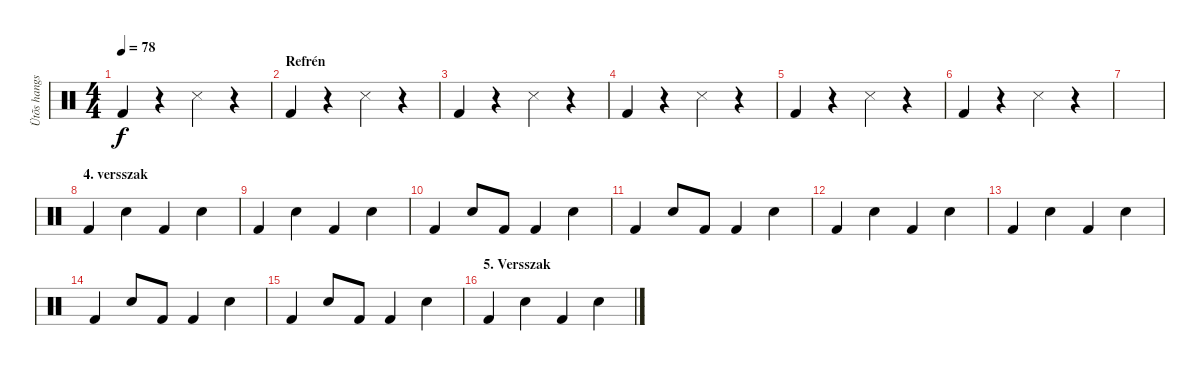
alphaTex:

\track ("Ütõs hangszer" "Ütõs hangs") {instrument percussion}
\staff {score}
\articulation defaults
\ts (4 4)
\tempo 78
\clef neutral
\ks c "Kick (hit) 2".4{dy f}
r.4 "Snare (side stick) 3".4 r.4 |
\section ("" "Refrén")
"Kick (hit) 2".4 r.4 "Snare (side stick) 3".4 r.4 |
"Kick (hit) 2".4 r.4 "Snare (side stick) 3".4 r.4 |
"Kick (hit) 2".4 r.4 "Snare (side stick) 3".4 r.4 |
"Kick (hit) 2".4 r.4 "Snare (side stick) 3".4 r.4 |
"Kick (hit) 2".4 r.4 "Snare (side stick) 3".4 r.4 |
|
\section ("" "4. versszak")
"Kick (hit) 2".4 "Snare (hit) 2".4 "Kick (hit) 2".4 "Snare (hit) 2".4 |
"Kick (hit) 2".4 "Snare (hit) 2".4 "Kick (hit) 2".4 "Snare (hit) 2".4 |
"Kick (hit) 2".4 "Snare (hit) 2".8 "Kick (hit) 2".8 "Kick (hit) 2".4 "Snare (hit) 2".4 |
"Kick (hit) 2".4 "Snare (hit) 2".8 "Kick (hit) 2".8 "Kick (hit) 2".4 "Snare (hit) 2".4 |
"Kick (hit) 2".4 "Snare (hit) 2".4 "Kick (hit) 2".4 "Snare (hit) 2".4 |
"Kick (hit) 2".4 "Snare (hit) 2".4 "Kick (hit) 2".4 "Snare (hit) 2".4 |
"Kick (hit) 2".4 "Snare (hit) 2".8 "Kick (hit) 2".8 "Kick (hit) 2".4 "Snare (hit) 2".4 |
"Kick (hit) 2".4 "Snare (hit) 2".8 "Kick (hit) 2".8 "Kick (hit) 2".4 "Snare (hit) 2".4 |
\section ("" "5. Versszak")
"Kick (hit) 2".4 "Snare (hit) 2".4 "Kick (hit) 2".4 "Snare (hit) 2".4
